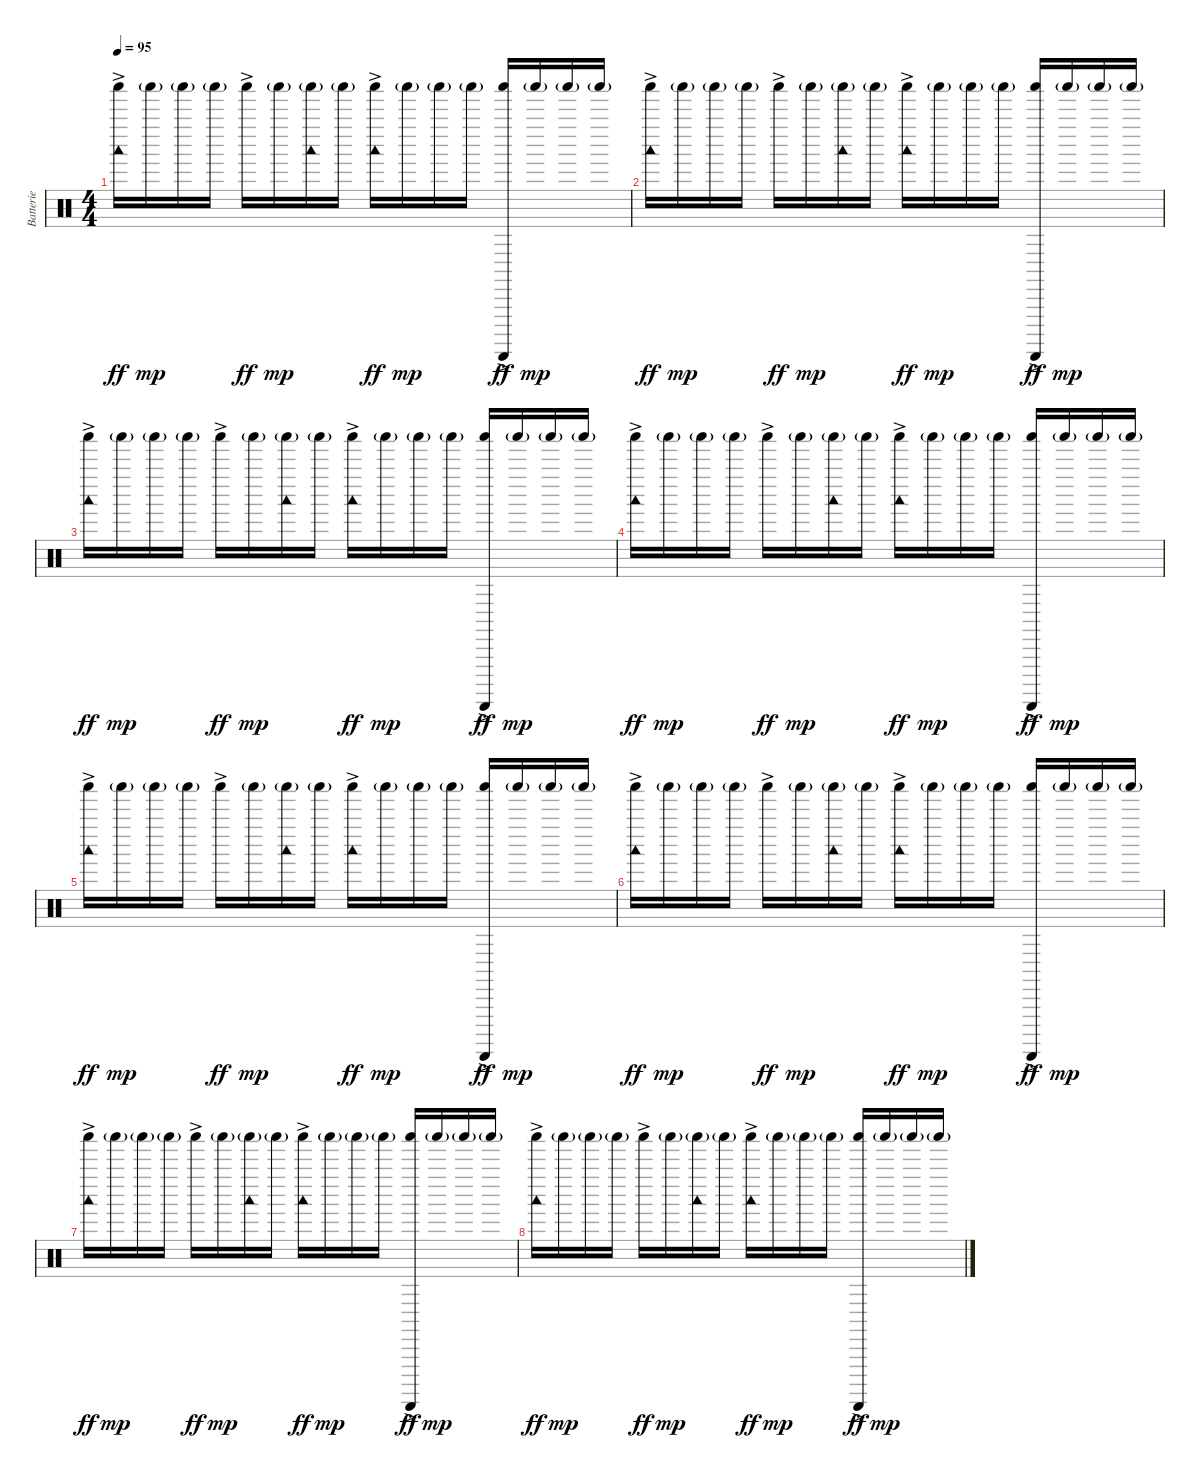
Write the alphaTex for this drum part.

\track ("Batterie" "Batterie") {instrument percussion}
\staff {score}
\articulation defaults
\ts (4 4)
\tempo 95
\clef neutral
\ks c
("Woodblock low (hit)" "Shaker (hit)"{ac}).16{dy ff} "Shaker (hit)"{g}.16{dy mp} "Shaker (hit)"{g}.16 "Shaker (hit)"{g}.16 "Shaker (hit)"{ac}.16{dy ff} "Shaker (hit)"{g}.16{dy mp} ("Woodblock low (hit)" "Shaker (hit)"{g}).16 "Shaker (hit)"{g}.16 ("Woodblock low (hit)" "Shaker (hit)"{ac}).16{dy ff} "Shaker (hit)"{g}.16{dy mp} "Shaker (hit)"{g}.16 "Shaker (hit)"{g}.16 ("Guiro (scrap-return)" "Shaker (hit)"{ac}).16{dy ff} "Shaker (hit)"{g}.16{dy mp} "Shaker (hit)"{g}.16 "Shaker (hit)"{g}.16 |
("Woodblock low (hit)" "Shaker (hit)"{ac}).16{dy ff} "Shaker (hit)"{g}.16{dy mp} "Shaker (hit)"{g}.16 "Shaker (hit)"{g}.16 "Shaker (hit)"{ac}.16{dy ff} "Shaker (hit)"{g}.16{dy mp} ("Woodblock low (hit)" "Shaker (hit)"{g}).16 "Shaker (hit)"{g}.16 ("Woodblock low (hit)" "Shaker (hit)"{ac}).16{dy ff} "Shaker (hit)"{g}.16{dy mp} "Shaker (hit)"{g}.16 "Shaker (hit)"{g}.16 ("Guiro (scrap-return)" "Shaker (hit)"{ac}).16{dy ff} "Shaker (hit)"{g}.16{dy mp} "Shaker (hit)"{g}.16 "Shaker (hit)"{g}.16 |
("Woodblock low (hit)" "Shaker (hit)"{ac}).16{dy ff} "Shaker (hit)"{g}.16{dy mp} "Shaker (hit)"{g}.16 "Shaker (hit)"{g}.16 "Shaker (hit)"{ac}.16{dy ff} "Shaker (hit)"{g}.16{dy mp} ("Woodblock low (hit)" "Shaker (hit)"{g}).16 "Shaker (hit)"{g}.16 ("Woodblock low (hit)" "Shaker (hit)"{ac}).16{dy ff} "Shaker (hit)"{g}.16{dy mp} "Shaker (hit)"{g}.16 "Shaker (hit)"{g}.16 ("Guiro (scrap-return)" "Shaker (hit)"{ac}).16{dy ff} "Shaker (hit)"{g}.16{dy mp} "Shaker (hit)"{g}.16 "Shaker (hit)"{g}.16 |
("Woodblock low (hit)" "Shaker (hit)"{ac}).16{dy ff} "Shaker (hit)"{g}.16{dy mp} "Shaker (hit)"{g}.16 "Shaker (hit)"{g}.16 "Shaker (hit)"{ac}.16{dy ff} "Shaker (hit)"{g}.16{dy mp} ("Woodblock low (hit)" "Shaker (hit)"{g}).16 "Shaker (hit)"{g}.16 ("Woodblock low (hit)" "Shaker (hit)"{ac}).16{dy ff} "Shaker (hit)"{g}.16{dy mp} "Shaker (hit)"{g}.16 "Shaker (hit)"{g}.16 ("Guiro (scrap-return)" "Shaker (hit)"{ac}).16{dy ff} "Shaker (hit)"{g}.16{dy mp} "Shaker (hit)"{g}.16 "Shaker (hit)"{g}.16 |
("Woodblock low (hit)" "Shaker (hit)"{ac}).16{dy ff} "Shaker (hit)"{g}.16{dy mp} "Shaker (hit)"{g}.16 "Shaker (hit)"{g}.16 "Shaker (hit)"{ac}.16{dy ff} "Shaker (hit)"{g}.16{dy mp} ("Woodblock low (hit)" "Shaker (hit)"{g}).16 "Shaker (hit)"{g}.16 ("Woodblock low (hit)" "Shaker (hit)"{ac}).16{dy ff} "Shaker (hit)"{g}.16{dy mp} "Shaker (hit)"{g}.16 "Shaker (hit)"{g}.16 ("Guiro (scrap-return)" "Shaker (hit)"{ac}).16{dy ff} "Shaker (hit)"{g}.16{dy mp} "Shaker (hit)"{g}.16 "Shaker (hit)"{g}.16 |
("Woodblock low (hit)" "Shaker (hit)"{ac}).16{dy ff} "Shaker (hit)"{g}.16{dy mp} "Shaker (hit)"{g}.16 "Shaker (hit)"{g}.16 "Shaker (hit)"{ac}.16{dy ff} "Shaker (hit)"{g}.16{dy mp} ("Woodblock low (hit)" "Shaker (hit)"{g}).16 "Shaker (hit)"{g}.16 ("Woodblock low (hit)" "Shaker (hit)"{ac}).16{dy ff} "Shaker (hit)"{g}.16{dy mp} "Shaker (hit)"{g}.16 "Shaker (hit)"{g}.16 ("Guiro (scrap-return)" "Shaker (hit)"{ac}).16{dy ff} "Shaker (hit)"{g}.16{dy mp} "Shaker (hit)"{g}.16 "Shaker (hit)"{g}.16 |
("Woodblock low (hit)" "Shaker (hit)"{ac}).16{dy ff} "Shaker (hit)"{g}.16{dy mp} "Shaker (hit)"{g}.16 "Shaker (hit)"{g}.16 "Shaker (hit)"{ac}.16{dy ff} "Shaker (hit)"{g}.16{dy mp} ("Woodblock low (hit)" "Shaker (hit)"{g}).16 "Shaker (hit)"{g}.16 ("Woodblock low (hit)" "Shaker (hit)"{ac}).16{dy ff} "Shaker (hit)"{g}.16{dy mp} "Shaker (hit)"{g}.16 "Shaker (hit)"{g}.16 ("Guiro (scrap-return)" "Shaker (hit)"{ac}).16{dy ff} "Shaker (hit)"{g}.16{dy mp} "Shaker (hit)"{g}.16 "Shaker (hit)"{g}.16 |
("Woodblock low (hit)" "Shaker (hit)"{ac}).16{dy ff} "Shaker (hit)"{g}.16{dy mp} "Shaker (hit)"{g}.16 "Shaker (hit)"{g}.16 "Shaker (hit)"{ac}.16{dy ff} "Shaker (hit)"{g}.16{dy mp} ("Woodblock low (hit)" "Shaker (hit)"{g}).16 "Shaker (hit)"{g}.16 ("Woodblock low (hit)" "Shaker (hit)"{ac}).16{dy ff} "Shaker (hit)"{g}.16{dy mp} "Shaker (hit)"{g}.16 "Shaker (hit)"{g}.16 ("Guiro (scrap-return)" "Shaker (hit)"{ac}).16{dy ff} "Shaker (hit)"{g}.16{dy mp} "Shaker (hit)"{g}.16 "Shaker (hit)"{g}.16
